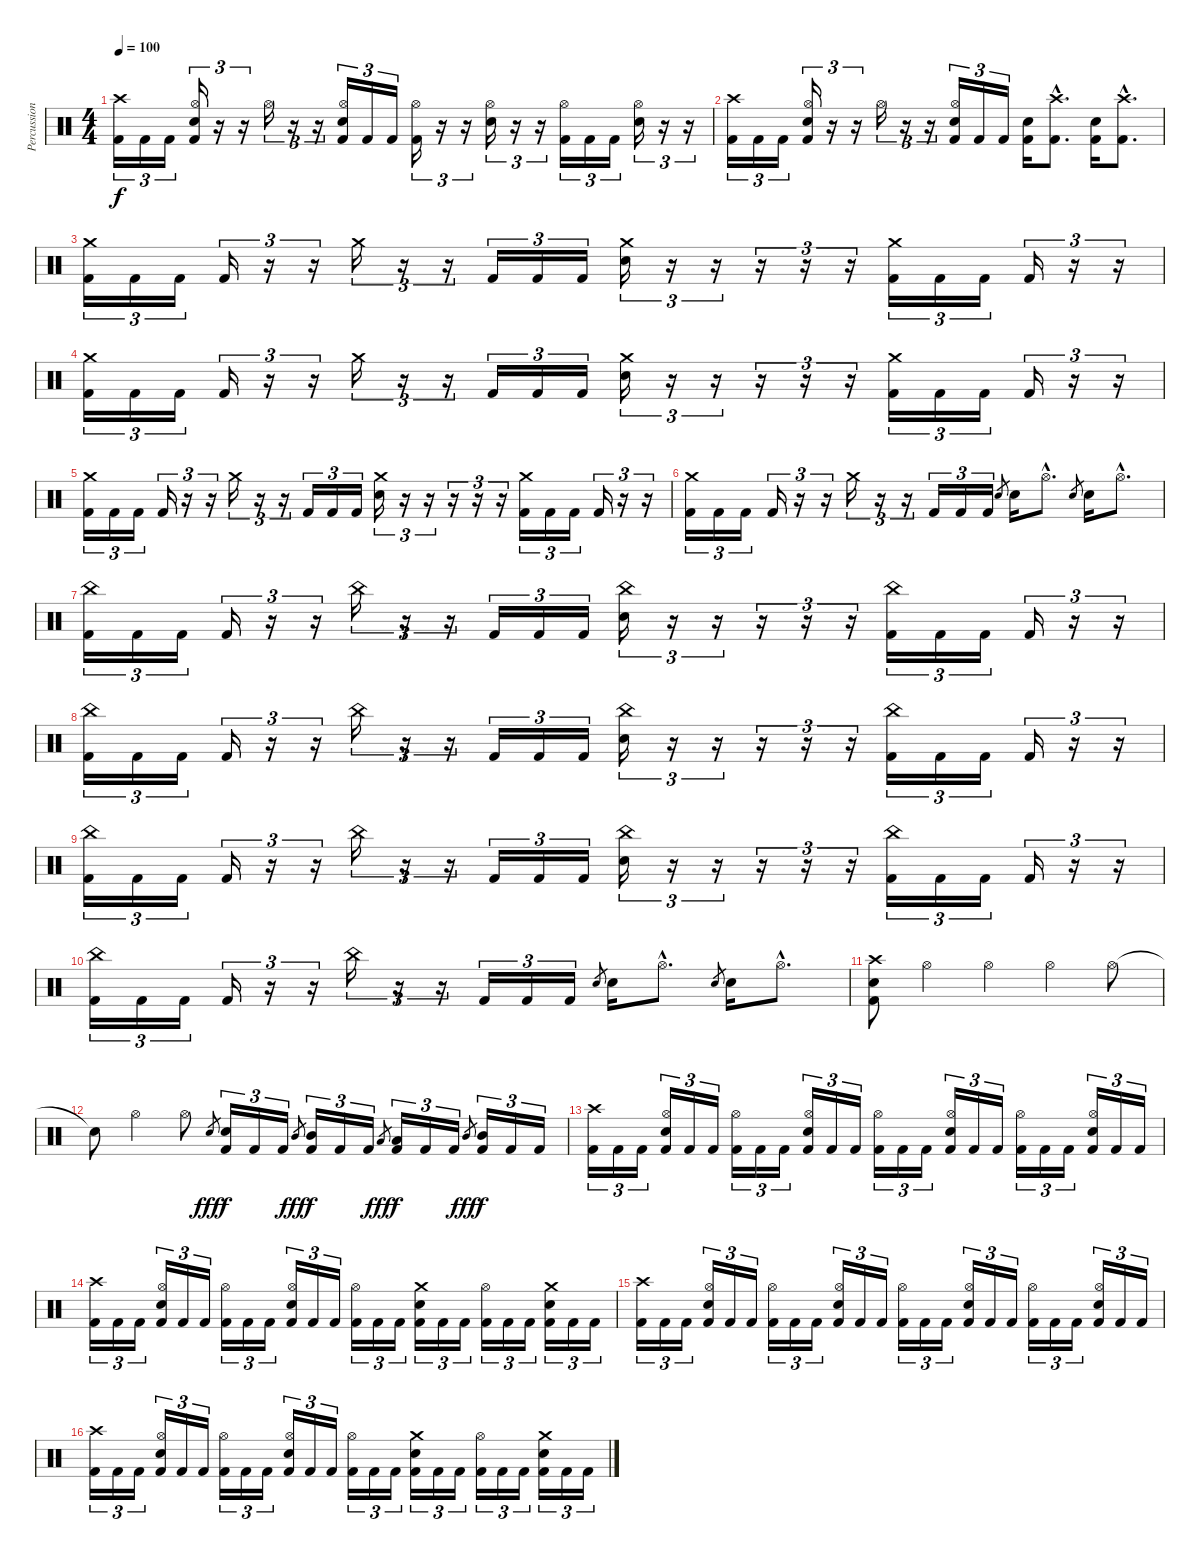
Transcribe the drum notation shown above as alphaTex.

\track ("Percussion" "Percussion") {instrument percussion}
\staff {score}
\articulation defaults
\ts (4 4)
\tempo 100
\clef neutral
\ks c
("Crash high (hit)" "Kick (hit) 2").16{tu (3 2) dy f} "Kick (hit) 2".16{tu (3 2)} "Kick (hit) 2".16{tu (3 2)} ("Hi-Hat (open)" "Electric Snare (hit)" "Kick (hit) 2").16{tu (3 2)} r.16{tu (3 2)} r.16{tu (3 2)} "Hi-Hat (open)".16{tu (3 2)} r.16{tu (3 2)} r.16{tu (3 2)} ("Hi-Hat (open)" "Electric Snare (hit)" "Kick (hit) 2").16{tu (3 2)} "Kick (hit) 2".16{tu (3 2)} "Kick (hit) 2".16{tu (3 2)} ("Hi-Hat (open)" "Kick (hit) 2").16{tu (3 2)} r.16{tu (3 2)} r.16{tu (3 2)} ("Hi-Hat (open)" "Electric Snare (hit)").16{tu (3 2)} r.16{tu (3 2)} r.16{tu (3 2)} ("Hi-Hat (open)" "Kick (hit) 2").16{tu (3 2)} "Kick (hit) 2".16{tu (3 2)} "Kick (hit) 2".16{tu (3 2)} ("Hi-Hat (open)" "Electric Snare (hit)").16{tu (3 2)} r.16{tu (3 2)} r.16{tu (3 2)} |
("Crash high (hit)" "Kick (hit) 2").16{tu (3 2)} "Kick (hit) 2".16{tu (3 2)} "Kick (hit) 2".16{tu (3 2)} ("Hi-Hat (open)" "Electric Snare (hit)" "Kick (hit) 2").16{tu (3 2)} r.16{tu (3 2)} r.16{tu (3 2)} "Hi-Hat (open)".16{tu (3 2)} r.16{tu (3 2)} r.16{tu (3 2)} ("Hi-Hat (open)" "Electric Snare (hit)" "Kick (hit) 2").16{tu (3 2)} "Kick (hit) 2".16{tu (3 2)} "Kick (hit) 2".16{tu (3 2)} ("Electric Snare (hit)" "Kick (hit) 2").16 ("Crash high (hit)"{hac} "Kick (hit) 2"{hac}).8{d} ("Electric Snare (hit)" "Kick (hit) 2").16 ("Crash high (hit)"{hac} "Kick (hit) 2"{hac}).8{d} |
("Crash medium (hit)" "Kick (hit) 2").16{tu (3 2)} "Kick (hit) 2".16{tu (3 2)} "Kick (hit) 2".16{tu (3 2)} "Kick (hit) 2".16{tu (3 2)} r.16{tu (3 2)} r.16{tu (3 2)} "Crash medium (hit)".16{tu (3 2)} r.16{tu (3 2)} r.16{tu (3 2)} "Kick (hit) 2".16{tu (3 2)} "Kick (hit) 2".16{tu (3 2)} "Kick (hit) 2".16{tu (3 2)} ("Crash medium (hit)" "Electric Snare (hit)").16{tu (3 2)} r.16{tu (3 2)} r.16{tu (3 2)} r.16{tu (3 2)} r.16{tu (3 2)} r.16{tu (3 2)} ("Crash medium (hit)" "Kick (hit) 2").16{tu (3 2)} "Kick (hit) 2".16{tu (3 2)} "Kick (hit) 2".16{tu (3 2)} "Kick (hit) 2".16{tu (3 2)} r.16{tu (3 2)} r.16{tu (3 2)} |
("Crash medium (hit)" "Kick (hit) 2").16{tu (3 2)} "Kick (hit) 2".16{tu (3 2)} "Kick (hit) 2".16{tu (3 2)} "Kick (hit) 2".16{tu (3 2)} r.16{tu (3 2)} r.16{tu (3 2)} "Crash medium (hit)".16{tu (3 2)} r.16{tu (3 2)} r.16{tu (3 2)} "Kick (hit) 2".16{tu (3 2)} "Kick (hit) 2".16{tu (3 2)} "Kick (hit) 2".16{tu (3 2)} ("Crash medium (hit)" "Electric Snare (hit)").16{tu (3 2)} r.16{tu (3 2)} r.16{tu (3 2)} r.16{tu (3 2)} r.16{tu (3 2)} r.16{tu (3 2)} ("Crash medium (hit)" "Kick (hit) 2").16{tu (3 2)} "Kick (hit) 2".16{tu (3 2)} "Kick (hit) 2".16{tu (3 2)} "Kick (hit) 2".16{tu (3 2)} r.16{tu (3 2)} r.16{tu (3 2)} |
("Crash medium (hit)" "Kick (hit) 2").16{tu (3 2)} "Kick (hit) 2".16{tu (3 2)} "Kick (hit) 2".16{tu (3 2)} "Kick (hit) 2".16{tu (3 2)} r.16{tu (3 2)} r.16{tu (3 2)} "Crash medium (hit)".16{tu (3 2)} r.16{tu (3 2)} r.16{tu (3 2)} "Kick (hit) 2".16{tu (3 2)} "Kick (hit) 2".16{tu (3 2)} "Kick (hit) 2".16{tu (3 2)} ("Crash medium (hit)" "Electric Snare (hit)").16{tu (3 2)} r.16{tu (3 2)} r.16{tu (3 2)} r.16{tu (3 2)} r.16{tu (3 2)} r.16{tu (3 2)} ("Crash medium (hit)" "Kick (hit) 2").16{tu (3 2)} "Kick (hit) 2".16{tu (3 2)} "Kick (hit) 2".16{tu (3 2)} "Kick (hit) 2".16{tu (3 2)} r.16{tu (3 2)} r.16{tu (3 2)} |
("Crash medium (hit)" "Kick (hit) 2").16{tu (3 2)} "Kick (hit) 2".16{tu (3 2)} "Kick (hit) 2".16{tu (3 2)} "Kick (hit) 2".16{tu (3 2)} r.16{tu (3 2)} r.16{tu (3 2)} "Crash medium (hit)".16{tu (3 2)} r.16{tu (3 2)} r.16{tu (3 2)} "Kick (hit) 2".16{tu (3 2)} "Kick (hit) 2".16{tu (3 2)} "Kick (hit) 2".16{tu (3 2)} "Electric Snare (hit)".8{gr} "Electric Snare (hit)".16 "Hi-Hat (open)"{hac}.8{d} "Electric Snare (hit)".8{gr} "Electric Snare (hit)".16 "Hi-Hat (open)"{hac}.8{d} |
("China (hit)" "Kick (hit) 2").16{tu (3 2)} "Kick (hit) 2".16{tu (3 2)} "Kick (hit) 2".16{tu (3 2)} "Kick (hit) 2".16{tu (3 2)} r.16{tu (3 2)} r.16{tu (3 2)} "China (hit)".16{tu (3 2)} r.16{tu (3 2)} r.16{tu (3 2)} "Kick (hit) 2".16{tu (3 2)} "Kick (hit) 2".16{tu (3 2)} "Kick (hit) 2".16{tu (3 2)} ("China (hit)" "Electric Snare (hit)").16{tu (3 2)} r.16{tu (3 2)} r.16{tu (3 2)} r.16{tu (3 2)} r.16{tu (3 2)} r.16{tu (3 2)} ("China (hit)" "Kick (hit) 2").16{tu (3 2)} "Kick (hit) 2".16{tu (3 2)} "Kick (hit) 2".16{tu (3 2)} "Kick (hit) 2".16{tu (3 2)} r.16{tu (3 2)} r.16{tu (3 2)} |
("China (hit)" "Kick (hit) 2").16{tu (3 2)} "Kick (hit) 2".16{tu (3 2)} "Kick (hit) 2".16{tu (3 2)} "Kick (hit) 2".16{tu (3 2)} r.16{tu (3 2)} r.16{tu (3 2)} "China (hit)".16{tu (3 2)} r.16{tu (3 2)} r.16{tu (3 2)} "Kick (hit) 2".16{tu (3 2)} "Kick (hit) 2".16{tu (3 2)} "Kick (hit) 2".16{tu (3 2)} ("China (hit)" "Electric Snare (hit)").16{tu (3 2)} r.16{tu (3 2)} r.16{tu (3 2)} r.16{tu (3 2)} r.16{tu (3 2)} r.16{tu (3 2)} ("China (hit)" "Kick (hit) 2").16{tu (3 2)} "Kick (hit) 2".16{tu (3 2)} "Kick (hit) 2".16{tu (3 2)} "Kick (hit) 2".16{tu (3 2)} r.16{tu (3 2)} r.16{tu (3 2)} |
("China (hit)" "Kick (hit) 2").16{tu (3 2)} "Kick (hit) 2".16{tu (3 2)} "Kick (hit) 2".16{tu (3 2)} "Kick (hit) 2".16{tu (3 2)} r.16{tu (3 2)} r.16{tu (3 2)} "China (hit)".16{tu (3 2)} r.16{tu (3 2)} r.16{tu (3 2)} "Kick (hit) 2".16{tu (3 2)} "Kick (hit) 2".16{tu (3 2)} "Kick (hit) 2".16{tu (3 2)} ("China (hit)" "Electric Snare (hit)").16{tu (3 2)} r.16{tu (3 2)} r.16{tu (3 2)} r.16{tu (3 2)} r.16{tu (3 2)} r.16{tu (3 2)} ("China (hit)" "Kick (hit) 2").16{tu (3 2)} "Kick (hit) 2".16{tu (3 2)} "Kick (hit) 2".16{tu (3 2)} "Kick (hit) 2".16{tu (3 2)} r.16{tu (3 2)} r.16{tu (3 2)} |
("China (hit)" "Kick (hit) 2").16{tu (3 2)} "Kick (hit) 2".16{tu (3 2)} "Kick (hit) 2".16{tu (3 2)} "Kick (hit) 2".16{tu (3 2)} r.16{tu (3 2)} r.16{tu (3 2)} "China (hit)".16{tu (3 2)} r.16{tu (3 2)} r.16{tu (3 2)} "Kick (hit) 2".16{tu (3 2)} "Kick (hit) 2".16{tu (3 2)} "Kick (hit) 2".16{tu (3 2)} "Electric Snare (hit)".8{gr} "Electric Snare (hit)".16 "Hi-Hat (open)"{hac}.8{d} "Electric Snare (hit)".8{gr} "Electric Snare (hit)".16 "Hi-Hat (open)"{hac}.8{d} |
("Crash high (hit)" "Electric Snare (hit)" "Kick (hit) 2").8 "Hi-Hat (open)".4 "Hi-Hat (open)".4 "Hi-Hat (open)".4 "Hi-Hat (open)".8 |
"Snare (hit)"{t}.8 "Hi-Hat (open)".4 "Hi-Hat (open)".8 "Electric Snare (hit)".8{gr dy fff} ("Electric Snare (hit)" "Kick (hit) 2").16{tu (3 2) dy f} "Kick (hit) 2".16{tu (3 2)} "Kick (hit) 2".16{tu (3 2)} "Mid Tom (hit)".8{gr dy fff} ("Mid Tom (hit)" "Kick (hit) 2").16{tu (3 2) dy f} "Kick (hit) 2".16{tu (3 2)} "Kick (hit) 2".16{tu (3 2)} "Low Tom (hit)".8{gr dy fff} ("Low Tom (hit)" "Kick (hit) 2").16{tu (3 2) dy f} "Kick (hit) 2".16{tu (3 2)} "Kick (hit) 2".16{tu (3 2)} "Mid Tom (hit)".8{gr dy fff} ("Mid Tom (hit)" "Kick (hit) 2").16{tu (3 2) dy f} "Kick (hit) 2".16{tu (3 2)} "Kick (hit) 2".16{tu (3 2)} |
("Crash high (hit)" "Kick (hit) 2").16{tu (3 2)} "Kick (hit) 2".16{tu (3 2)} "Kick (hit) 2".16{tu (3 2)} ("Hi-Hat (open)" "Electric Snare (hit)" "Kick (hit) 2").16{tu (3 2)} "Kick (hit) 2".16{tu (3 2)} "Kick (hit) 2".16{tu (3 2)} ("Hi-Hat (open)" "Kick (hit) 2").16{tu (3 2)} "Kick (hit) 2".16{tu (3 2)} "Kick (hit) 2".16{tu (3 2)} ("Hi-Hat (open)" "Electric Snare (hit)" "Kick (hit) 2").16{tu (3 2)} "Kick (hit) 2".16{tu (3 2)} "Kick (hit) 2".16{tu (3 2)} ("Hi-Hat (open)" "Kick (hit) 2").16{tu (3 2)} "Kick (hit) 2".16{tu (3 2)} "Kick (hit) 2".16{tu (3 2)} ("Hi-Hat (open)" "Electric Snare (hit)" "Kick (hit) 2").16{tu (3 2)} "Kick (hit) 2".16{tu (3 2)} "Kick (hit) 2".16{tu (3 2)} ("Hi-Hat (open)" "Kick (hit) 2").16{tu (3 2)} "Kick (hit) 2".16{tu (3 2)} "Kick (hit) 2".16{tu (3 2)} ("Hi-Hat (open)" "Electric Snare (hit)" "Kick (hit) 2").16{tu (3 2)} "Kick (hit) 2".16{tu (3 2)} "Kick (hit) 2".16{tu (3 2)} |
("Crash high (hit)" "Kick (hit) 2").16{tu (3 2)} "Kick (hit) 2".16{tu (3 2)} "Kick (hit) 2".16{tu (3 2)} ("Hi-Hat (open)" "Electric Snare (hit)" "Kick (hit) 2").16{tu (3 2)} "Kick (hit) 2".16{tu (3 2)} "Kick (hit) 2".16{tu (3 2)} ("Hi-Hat (open)" "Kick (hit) 2").16{tu (3 2)} "Kick (hit) 2".16{tu (3 2)} "Kick (hit) 2".16{tu (3 2)} ("Hi-Hat (open)" "Electric Snare (hit)" "Kick (hit) 2").16{tu (3 2)} "Kick (hit) 2".16{tu (3 2)} "Kick (hit) 2".16{tu (3 2)} ("Hi-Hat (open)" "Kick (hit) 2").16{tu (3 2)} "Kick (hit) 2".16{tu (3 2)} "Kick (hit) 2".16{tu (3 2)} ("Crash medium (hit)" "Electric Snare (hit)" "Kick (hit) 2").16{tu (3 2)} "Kick (hit) 2".16{tu (3 2)} "Kick (hit) 2".16{tu (3 2)} ("Hi-Hat (open)" "Kick (hit) 2").16{tu (3 2)} "Kick (hit) 2".16{tu (3 2)} "Kick (hit) 2".16{tu (3 2)} ("Crash medium (hit)" "Electric Snare (hit)" "Kick (hit) 2").16{tu (3 2)} "Kick (hit) 2".16{tu (3 2)} "Kick (hit) 2".16{tu (3 2)} |
("Crash high (hit)" "Kick (hit) 2").16{tu (3 2)} "Kick (hit) 2".16{tu (3 2)} "Kick (hit) 2".16{tu (3 2)} ("Hi-Hat (open)" "Electric Snare (hit)" "Kick (hit) 2").16{tu (3 2)} "Kick (hit) 2".16{tu (3 2)} "Kick (hit) 2".16{tu (3 2)} ("Hi-Hat (open)" "Kick (hit) 2").16{tu (3 2)} "Kick (hit) 2".16{tu (3 2)} "Kick (hit) 2".16{tu (3 2)} ("Hi-Hat (open)" "Electric Snare (hit)" "Kick (hit) 2").16{tu (3 2)} "Kick (hit) 2".16{tu (3 2)} "Kick (hit) 2".16{tu (3 2)} ("Hi-Hat (open)" "Kick (hit) 2").16{tu (3 2)} "Kick (hit) 2".16{tu (3 2)} "Kick (hit) 2".16{tu (3 2)} ("Hi-Hat (open)" "Electric Snare (hit)" "Kick (hit) 2").16{tu (3 2)} "Kick (hit) 2".16{tu (3 2)} "Kick (hit) 2".16{tu (3 2)} ("Hi-Hat (open)" "Kick (hit) 2").16{tu (3 2)} "Kick (hit) 2".16{tu (3 2)} "Kick (hit) 2".16{tu (3 2)} ("Hi-Hat (open)" "Electric Snare (hit)" "Kick (hit) 2").16{tu (3 2)} "Kick (hit) 2".16{tu (3 2)} "Kick (hit) 2".16{tu (3 2)} |
("Crash high (hit)" "Kick (hit) 2").16{tu (3 2)} "Kick (hit) 2".16{tu (3 2)} "Kick (hit) 2".16{tu (3 2)} ("Hi-Hat (open)" "Electric Snare (hit)" "Kick (hit) 2").16{tu (3 2)} "Kick (hit) 2".16{tu (3 2)} "Kick (hit) 2".16{tu (3 2)} ("Hi-Hat (open)" "Kick (hit) 2").16{tu (3 2)} "Kick (hit) 2".16{tu (3 2)} "Kick (hit) 2".16{tu (3 2)} ("Hi-Hat (open)" "Electric Snare (hit)" "Kick (hit) 2").16{tu (3 2)} "Kick (hit) 2".16{tu (3 2)} "Kick (hit) 2".16{tu (3 2)} ("Hi-Hat (open)" "Kick (hit) 2").16{tu (3 2)} "Kick (hit) 2".16{tu (3 2)} "Kick (hit) 2".16{tu (3 2)} ("Crash medium (hit)" "Electric Snare (hit)" "Kick (hit) 2").16{tu (3 2)} "Kick (hit) 2".16{tu (3 2)} "Kick (hit) 2".16{tu (3 2)} ("Hi-Hat (open)" "Kick (hit) 2").16{tu (3 2)} "Kick (hit) 2".16{tu (3 2)} "Kick (hit) 2".16{tu (3 2)} ("Crash medium (hit)" "Electric Snare (hit)" "Kick (hit) 2").16{tu (3 2)} "Kick (hit) 2".16{tu (3 2)} "Kick (hit) 2".16{tu (3 2)}
